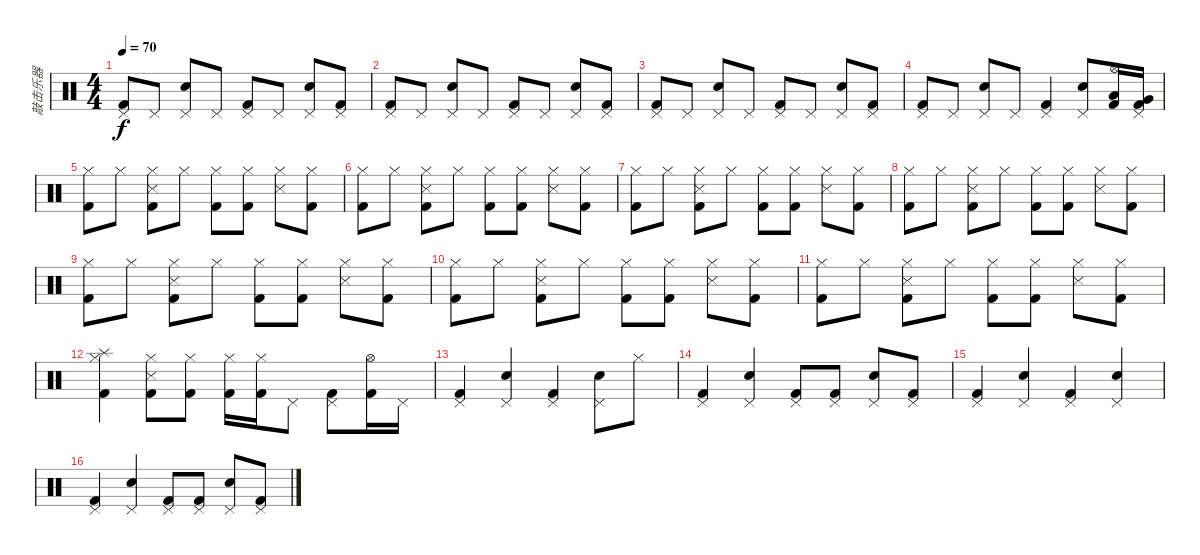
\track ("敲击乐器" "敲击乐器") {instrument percussion}
\staff {score}
\articulation defaults
\ts (4 4)
\tempo 70
\clef neutral
\ks c
("Pedal Hi-Hat (hit)" "Kick (hit) 2").8{dy f} "Pedal Hi-Hat (hit)".8 ("Pedal Hi-Hat (hit)" "Snare (hit) 2").8 "Pedal Hi-Hat (hit)".8 ("Pedal Hi-Hat (hit)" "Kick (hit) 2").8 "Pedal Hi-Hat (hit)".8 ("Pedal Hi-Hat (hit)" "Snare (hit) 2").8 ("Pedal Hi-Hat (hit)" "Kick (hit) 2").8 |
("Pedal Hi-Hat (hit)" "Kick (hit) 2").8 "Pedal Hi-Hat (hit)".8 ("Pedal Hi-Hat (hit)" "Snare (hit) 2").8 "Pedal Hi-Hat (hit)".8 ("Pedal Hi-Hat (hit)" "Kick (hit) 2").8 "Pedal Hi-Hat (hit)".8 ("Pedal Hi-Hat (hit)" "Snare (hit) 2").8 ("Pedal Hi-Hat (hit)" "Kick (hit) 2").8 |
("Pedal Hi-Hat (hit)" "Kick (hit) 2").8 "Pedal Hi-Hat (hit)".8 ("Pedal Hi-Hat (hit)" "Snare (hit) 2").8 "Pedal Hi-Hat (hit)".8 ("Pedal Hi-Hat (hit)" "Kick (hit) 2").8 "Pedal Hi-Hat (hit)".8 ("Pedal Hi-Hat (hit)" "Snare (hit) 2").8 ("Pedal Hi-Hat (hit)" "Kick (hit) 2").8 |
("Pedal Hi-Hat (hit)" "Kick (hit) 2").8 "Pedal Hi-Hat (hit)".8 ("Pedal Hi-Hat (hit)" "Snare (hit) 2").8 "Pedal Hi-Hat (hit)".8 ("Pedal Hi-Hat (hit)" "Kick (hit) 2").4 ("Pedal Hi-Hat (hit)" "Snare (hit) 2").8 ("Hi-Hat (open)" "Low Tom (hit)" "Kick (hit) 2").16 ("Pedal Hi-Hat (hit)" "Very Low Tom (hit)" "Kick (hit) 2").16 |
("Hi-Hat (closed)" "Kick (hit) 2").8 "Hi-Hat (closed)".8 ("Hi-Hat (closed)" "Snare (side stick) 3" "Kick (hit) 2").8 "Hi-Hat (closed)".8 ("Hi-Hat (closed)" "Kick (hit) 2").8 ("Hi-Hat (closed)" "Kick (hit) 2").8 ("Hi-Hat (closed)" "Snare (side stick) 3").8 ("Hi-Hat (closed)" "Kick (hit) 2").8 |
("Hi-Hat (closed)" "Kick (hit) 2").8 "Hi-Hat (closed)".8 ("Hi-Hat (closed)" "Snare (side stick) 3" "Kick (hit) 2").8 "Hi-Hat (closed)".8 ("Hi-Hat (closed)" "Kick (hit) 2").8 ("Hi-Hat (closed)" "Kick (hit) 2").8 ("Hi-Hat (closed)" "Snare (side stick) 3").8 ("Hi-Hat (closed)" "Kick (hit) 2").8 |
("Hi-Hat (closed)" "Kick (hit) 2").8 "Hi-Hat (closed)".8 ("Hi-Hat (closed)" "Snare (side stick) 3" "Kick (hit) 2").8 "Hi-Hat (closed)".8 ("Hi-Hat (closed)" "Kick (hit) 2").8 ("Hi-Hat (closed)" "Kick (hit) 2").8 ("Hi-Hat (closed)" "Snare (side stick) 3").8 ("Hi-Hat (closed)" "Kick (hit) 2").8 |
("Hi-Hat (closed)" "Kick (hit) 2").8 "Hi-Hat (closed)".8 ("Hi-Hat (closed)" "Snare (side stick) 3" "Kick (hit) 2").8 "Hi-Hat (closed)".8 ("Hi-Hat (closed)" "Kick (hit) 2").8 ("Hi-Hat (closed)" "Kick (hit) 2").8 ("Hi-Hat (closed)" "Snare (side stick) 3").8 ("Hi-Hat (closed)" "Kick (hit) 2").8 |
("Hi-Hat (closed)" "Kick (hit) 2").8 "Hi-Hat (closed)".8 ("Hi-Hat (closed)" "Snare (side stick) 3" "Kick (hit) 2").8 "Hi-Hat (closed)".8 ("Hi-Hat (closed)" "Kick (hit) 2").8 ("Hi-Hat (closed)" "Kick (hit) 2").8 ("Hi-Hat (closed)" "Snare (side stick) 3").8 ("Hi-Hat (closed)" "Kick (hit) 2").8 |
("Hi-Hat (closed)" "Kick (hit) 2").8 "Hi-Hat (closed)".8 ("Hi-Hat (closed)" "Snare (side stick) 3" "Kick (hit) 2").8 "Hi-Hat (closed)".8 ("Hi-Hat (closed)" "Kick (hit) 2").8 ("Hi-Hat (closed)" "Kick (hit) 2").8 ("Hi-Hat (closed)" "Snare (side stick) 3").8 ("Hi-Hat (closed)" "Kick (hit) 2").8 |
("Hi-Hat (closed)" "Kick (hit) 2").8 "Hi-Hat (closed)".8 ("Hi-Hat (closed)" "Snare (side stick) 3" "Kick (hit) 2").8 "Hi-Hat (closed)".8 ("Hi-Hat (closed)" "Kick (hit) 2").8 ("Hi-Hat (closed)" "Kick (hit) 2").8 ("Hi-Hat (closed)" "Snare (side stick) 3").8 ("Hi-Hat (closed)" "Kick (hit) 2").8 |
("Hi-Hat (closed)" "Splash (hit)" "Kick (hit) 2").4 ("Hi-Hat (closed)" "Snare (side stick) 3" "Kick (hit) 2").8 ("Hi-Hat (closed)" "Kick (hit) 2").8 ("Hi-Hat (closed)" "Kick (hit) 2").16 ("Hi-Hat (closed)" "Kick (hit) 2").16 "Pedal Hi-Hat (hit)".8 ("Pedal Hi-Hat (hit)" "Kick (hit) 2").8 ("Hi-Hat (open)" "Kick (hit) 2").16 "Pedal Hi-Hat (hit)".16 |
("Pedal Hi-Hat (hit)" "Kick (hit) 2").4 ("Pedal Hi-Hat (hit)" "Electric Snare (hit)").4 ("Pedal Hi-Hat (hit)" "Kick (hit) 2").4 ("Pedal Hi-Hat (hit)" "Electric Snare (hit)").8 "Hi-Hat (closed)".8 |
("Pedal Hi-Hat (hit)" "Kick (hit) 2").4 ("Pedal Hi-Hat (hit)" "Electric Snare (hit)").4 ("Pedal Hi-Hat (hit)" "Kick (hit) 2").8 ("Pedal Hi-Hat (hit)" "Kick (hit) 2").8 ("Pedal Hi-Hat (hit)" "Electric Snare (hit)").8 ("Pedal Hi-Hat (hit)" "Kick (hit) 2").8 |
("Pedal Hi-Hat (hit)" "Kick (hit) 2").4 ("Pedal Hi-Hat (hit)" "Electric Snare (hit)").4 ("Pedal Hi-Hat (hit)" "Kick (hit) 2").4 ("Pedal Hi-Hat (hit)" "Electric Snare (hit)").4 |
("Pedal Hi-Hat (hit)" "Kick (hit) 2").4 ("Pedal Hi-Hat (hit)" "Electric Snare (hit)").4 ("Pedal Hi-Hat (hit)" "Kick (hit) 2").8 ("Pedal Hi-Hat (hit)" "Kick (hit) 2").8 ("Pedal Hi-Hat (hit)" "Electric Snare (hit)").8 ("Pedal Hi-Hat (hit)" "Kick (hit) 2").8
